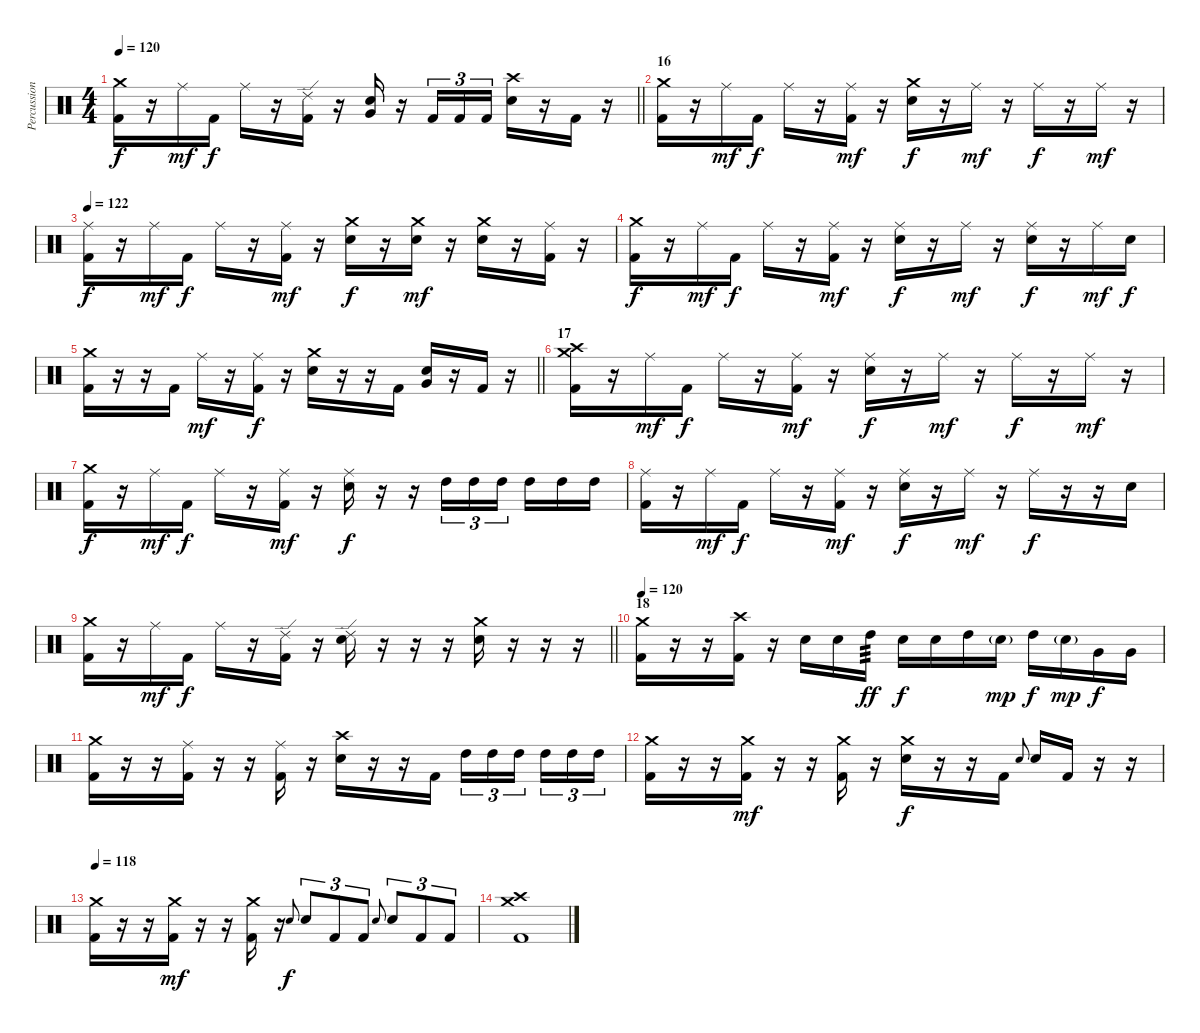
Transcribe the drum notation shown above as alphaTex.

\track ("Percussion" "Percussion") {instrument percussion}
\staff {score}
\articulation defaults
\ts (4 4)
\tempo 120
\clef neutral
\barLineRight lightlight
\ks c
("Crash medium (hit)" "Kick (hit) 2").16{dy f} r.16 "Ride (middle)".16{dy mf} "Kick (hit) 2".16{dy f} "Ride (middle)".16 r.16 ("Ride (edge) 2" "Kick (hit) 2").16 r.16 ("Snare (hit) 2" "Very Low Tom (hit)").16{bu 60} r.16 "Kick (hit) 2".16{tu (3 2)} "Kick (hit) 2".16{tu (3 2)} "Kick (hit) 2".16{tu (3 2)} ("Crash high (hit)" "Snare (hit) 2").16 r.16 "Kick (hit) 2".16 r.16 |
\section ("" "16")
("Crash medium (hit)" "Kick (hit) 2").16 r.16 "Ride (middle)".16{dy mf} "Kick (hit) 2".16{dy f} "Ride (middle)".16 r.16 ("Ride (middle)" "Kick (hit) 2").16{dy mf} r.16 ("Crash medium (hit)" "Snare (hit) 2").16{dy f} r.16 "Ride (middle)".16{dy mf} r.16 "Ride (middle)".16{dy f} r.16 "Ride (middle)".16{dy mf} r.16 |
\tempo 122
("Ride (middle)" "Kick (hit) 2").16{dy f} r.16 "Ride (middle)".16{dy mf} "Kick (hit) 2".16{dy f} "Ride (middle)".16 r.16 ("Ride (middle)" "Kick (hit) 2").16{dy mf} r.16 ("Crash medium (hit)" "Snare (hit) 2").16{dy f} r.16 ("Crash medium (hit)" "Snare (hit) 2").16{dy mf} r.16 ("Crash medium (hit)" "Snare (hit) 2").16 r.16 ("Ride (middle)" "Kick (hit) 2").16 r.16 |
("Crash medium (hit)" "Kick (hit) 2").16{dy f} r.16 "Ride (middle)".16{dy mf} "Kick (hit) 2".16{dy f} "Ride (middle)".16 r.16 ("Ride (middle)" "Kick (hit) 2").16{dy mf} r.16 ("Ride (middle)" "Snare (hit) 2").16{dy f} r.16 "Ride (middle)".16{dy mf} r.16 ("Ride (middle)" "Snare (hit) 2").16{dy f} r.16 "Ride (middle)".16{dy mf} "Snare (hit) 2".16{dy f} |
\barLineRight lightlight
("Crash medium (hit)" "Kick (hit) 2").16 r.16 r.16 "Kick (hit) 2".16 "Ride (middle)".16{dy mf} r.16 ("Ride (middle)" "Kick (hit) 2").16{dy f} r.16 ("Crash medium (hit)" "Snare (hit) 2").16 r.16 r.16 "Kick (hit) 2".16 ("Snare (hit) 2" "Very Low Tom (hit)").16{bu 60} r.16 "Kick (hit) 2".16 r.16 |
\section ("" "17")
("Crash high (hit)" "Crash medium (hit)" "Kick (hit) 2").16 r.16 "Ride (middle)".16{dy mf} "Kick (hit) 2".16{dy f} "Ride (middle)".16 r.16 ("Ride (middle)" "Kick (hit) 2").16{dy mf} r.16 ("Ride (middle)" "Snare (hit) 2").16{dy f} r.16 "Ride (middle)".16{dy mf} r.16 "Ride (middle)".16{dy f} r.16 "Ride (middle)".16{dy mf} r.16 |
("Crash medium (hit)" "Kick (hit) 2").16{dy f} r.16 "Ride (middle)".16{dy mf} "Kick (hit) 2".16{dy f} "Ride (middle)".16 r.16 ("Ride (middle)" "Kick (hit) 2").16{dy mf} r.16 ("Ride (middle)" "Snare (hit) 2").16{dy f} r.16 r.16 "High Tom (hit)".16{tu (3 2)} "High Tom (hit)".16{tu (3 2)} "High Tom (hit)".16{tu (3 2) beam splitsecondary} "High Tom (hit)".16 "High Tom (hit)".16 "High Tom (hit)".16 |
("Ride (middle)" "Kick (hit) 2").16 r.16 "Ride (middle)".16{dy mf} "Kick (hit) 2".16{dy f} "Ride (middle)".16 r.16 ("Ride (middle)" "Kick (hit) 2").16{dy mf} r.16 ("Ride (middle)" "Snare (hit) 2").16{dy f} r.16 "Ride (middle)".16{dy mf} r.16 "Ride (middle)".16{dy f} r.16 r.16 "Snare (hit) 2".16 |
\barLineRight lightlight
("Crash medium (hit)" "Kick (hit) 2").16 r.16 "Ride (middle)".16{dy mf} "Kick (hit) 2".16{dy f} "Ride (middle)".16 r.16 ("Ride (edge) 2" "Kick (hit) 2").16 r.16 ("Ride (edge) 2" "Snare (hit) 2").16 r.16 r.16 r.16 ("Crash medium (hit)" "Snare (hit) 2").16 r.16 r.16 r.16 |
\section ("" "18")
\tempo 120
("Crash medium (hit)" "Kick (hit) 2").16 r.16 r.16 ("Crash high (hit)" "Kick (hit) 2").16 r.16 "Snare (hit) 2".16 "Snare (hit) 2".16 "High Tom (hit)".16{tp 3 dy ff} "Snare (hit) 2".16{dy f} "Snare (hit) 2".16 "High Tom (hit)".16 "Snare (hit) 2"{g}.16{dy mp} "High Tom (hit)".16{dy f} "Snare (hit) 2"{g}.16{dy mp} "Very Low Tom (hit)".16{dy f} "Very Low Tom (hit)".16 |
("Crash medium (hit)" "Kick (hit) 2").16 r.16 r.16 ("Ride (middle)" "Kick (hit) 2").16 r.16 r.16 ("Ride (middle)" "Kick (hit) 2").16 r.16 ("Crash high (hit)" "Snare (hit) 2").16 r.16 r.16 "Kick (hit) 2".16 "High Tom (hit)".16{tu (3 2)} "High Tom (hit)".16{tu (3 2)} "High Tom (hit)".16{tu (3 2) beam splitsecondary} "High Tom (hit)".16{tu (3 2)} "High Tom (hit)".16{tu (3 2)} "High Tom (hit)".16{tu (3 2)} |
("Crash medium (hit)" "Kick (hit) 2").16 r.16 r.16 ("Crash medium (hit)" "Kick (hit) 2").16{dy mf} r.16 r.16 ("Crash medium (hit)" "Kick (hit) 2").16 r.16 ("Crash medium (hit)" "Snare (hit) 2").16{dy f} r.16 r.16 "Kick (hit) 2".16 "Snare (hit) 2".8{gr onbeat} "Snare (hit) 2".16 "Kick (hit) 2".16 r.16 r.16 |
\tempo 118
("Crash medium (hit)" "Kick (hit) 2").16 r.16 r.16 ("Crash medium (hit)" "Kick (hit) 2").16{dy mf} r.16 r.16 ("Crash medium (hit)" "Kick (hit) 2").16 r.16 "Snare (hit) 2".8{gr onbeat dy f} "Snare (hit) 2".8{tu (3 2)} "Kick (hit) 2".8{tu (3 2)} "Kick (hit) 2".8{tu (3 2)} "Snare (hit) 2".8{gr onbeat} "Snare (hit) 2".8{tu (3 2)} "Kick (hit) 2".8{tu (3 2)} "Kick (hit) 2".8{tu (3 2)} |
("Crash high (hit)" "Crash medium (hit)" "Kick (hit) 2").1
